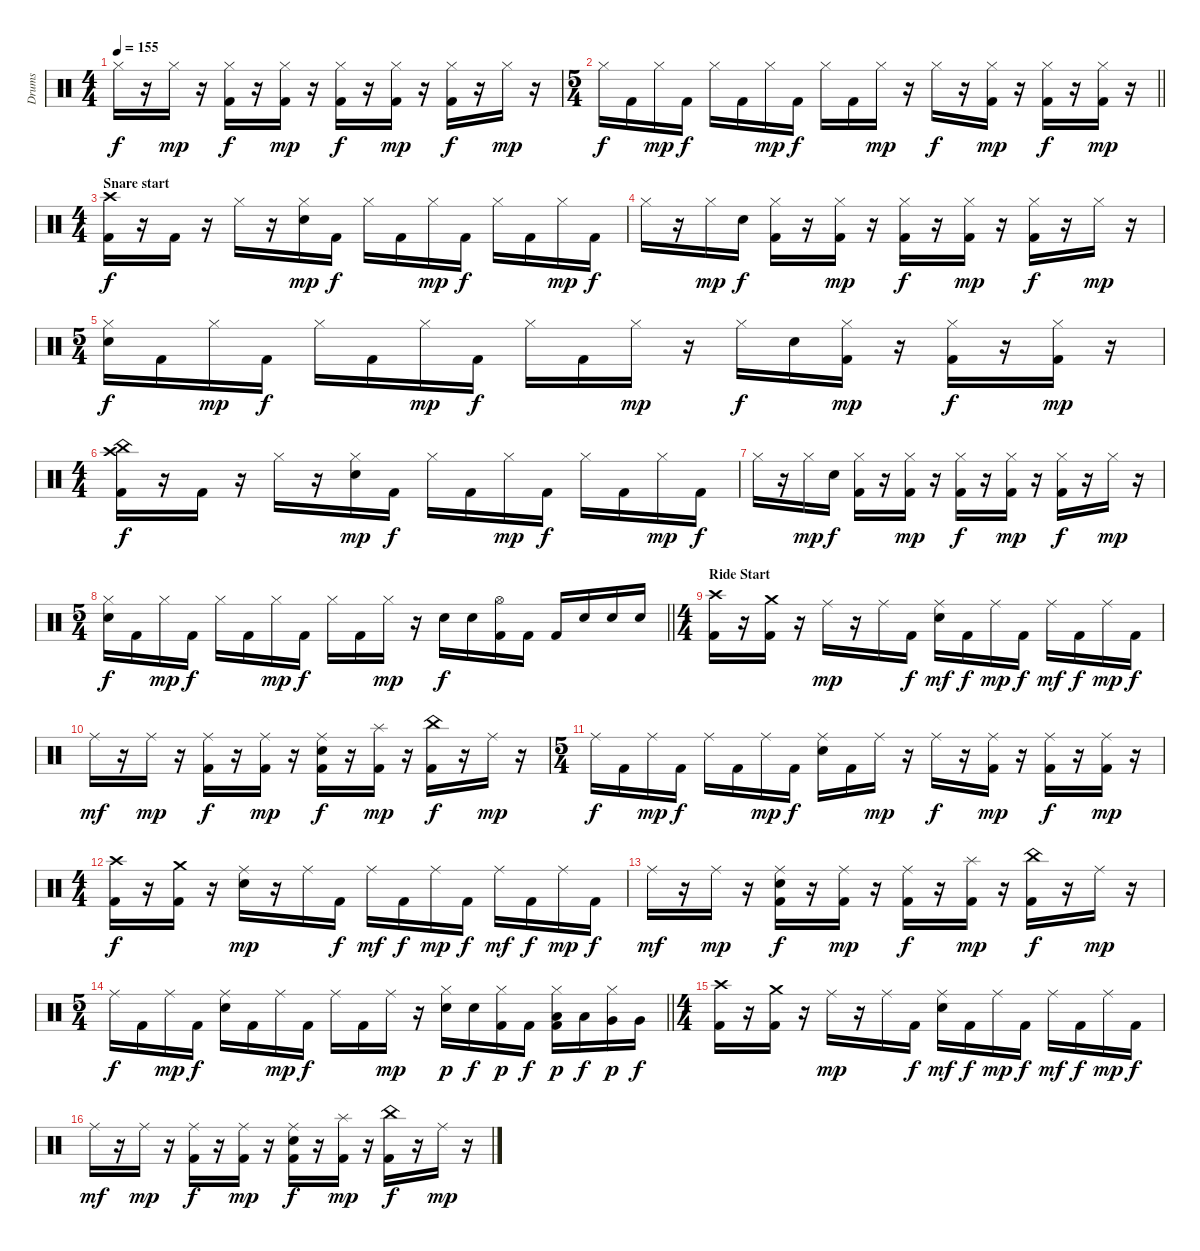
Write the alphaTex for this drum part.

\track ("Drums" "Drums") {instrument percussion}
\staff {score}
\articulation defaults
\ts (4 4)
\tempo 155
\clef neutral
\ks c "Hi-Hat (closed)".16{dy f}
r.16 "Hi-Hat (closed)".16{dy mp} r.16 ("Hi-Hat (closed)" "Kick (hit) 2").16{dy f} r.16 ("Hi-Hat (closed)" "Kick (hit) 2").16{dy mp} r.16 ("Hi-Hat (closed)" "Kick (hit) 2").16{dy f} r.16 ("Hi-Hat (closed)" "Kick (hit) 2").16{dy mp} r.16 ("Hi-Hat (closed)" "Kick (hit) 2").16{dy f} r.16 "Hi-Hat (closed)".16{dy mp} r.16 |
\ts (5 4)
\barLineRight lightlight "Hi-Hat (closed)".16{dy f} "Kick (hit) 2".16 "Hi-Hat (closed)".16{dy mp} "Kick (hit) 2".16{dy f} "Hi-Hat (closed)".16 "Kick (hit) 2".16 "Hi-Hat (closed)".16{dy mp} "Kick (hit) 2".16{dy f} "Hi-Hat (closed)".16 "Kick (hit) 2".16 "Hi-Hat (closed)".16{dy mp}
r.16 "Hi-Hat (closed)".16{dy f} r.16 ("Hi-Hat (closed)" "Kick (hit) 2").16{dy mp} r.16 ("Hi-Hat (closed)" "Kick (hit) 2").16{dy f} r.16 ("Hi-Hat (closed)" "Kick (hit) 2").16{dy mp} r.16 |
\ts (4 4)
\section ("" "Snare start")
("Crash high (hit)" "Kick (hit) 2").16{dy f} r.16 "Kick (hit) 2".16 r.16 "Hi-Hat (closed)".16 r.16 ("Hi-Hat (closed)" "Electric Snare (hit)").16{dy mp} "Kick (hit) 2".16{dy f} "Hi-Hat (closed)".16 "Kick (hit) 2".16 "Hi-Hat (closed)".16{dy mp} "Kick (hit) 2".16{dy f} "Hi-Hat (closed)".16 "Kick (hit) 2".16 "Hi-Hat (closed)".16{dy mp} "Kick (hit) 2".16{dy f} |
"Hi-Hat (closed)".16 r.16 "Hi-Hat (closed)".16{dy mp} "Electric Snare (hit)".16{dy f} ("Hi-Hat (closed)" "Kick (hit) 2").16 r.16 ("Hi-Hat (closed)" "Kick (hit) 2").16{dy mp} r.16 ("Hi-Hat (closed)" "Kick (hit) 2").16{dy f} r.16 ("Hi-Hat (closed)" "Kick (hit) 2").16{dy mp} r.16 ("Hi-Hat (closed)" "Kick (hit) 2").16{dy f} r.16 "Hi-Hat (closed)".16{dy mp} r.16 |
\ts (5 4)
("Hi-Hat (closed)" "Electric Snare (hit)").16{dy f} "Kick (hit) 2".16 "Hi-Hat (closed)".16{dy mp} "Kick (hit) 2".16{dy f} "Hi-Hat (closed)".16 "Kick (hit) 2".16 "Hi-Hat (closed)".16{dy mp} "Kick (hit) 2".16{dy f} "Hi-Hat (closed)".16 "Kick (hit) 2".16 "Hi-Hat (closed)".16{dy mp} r.16 "Hi-Hat (closed)".16{dy f} "Electric Snare (hit)".16 ("Hi-Hat (closed)" "Kick (hit) 2").16{dy mp} r.16 ("Hi-Hat (closed)" "Kick (hit) 2").16{dy f} r.16 ("Hi-Hat (closed)" "Kick (hit) 2").16{dy mp} r.16 |
\ts (4 4)
("Crash high (hit)" "China (hit)" "Kick (hit) 2").16{dy f} r.16 "Kick (hit) 2".16 r.16 "Hi-Hat (closed)".16 r.16 ("Hi-Hat (closed)" "Electric Snare (hit)").16{dy mp} "Kick (hit) 2".16{dy f} "Hi-Hat (closed)".16 "Kick (hit) 2".16 "Hi-Hat (closed)".16{dy mp} "Kick (hit) 2".16{dy f} "Hi-Hat (closed)".16 "Kick (hit) 2".16 "Hi-Hat (closed)".16{dy mp} "Kick (hit) 2".16{dy f} |
"Hi-Hat (closed)".16 r.16 "Hi-Hat (closed)".16{dy mp} "Electric Snare (hit)".16{dy f} ("Hi-Hat (closed)" "Kick (hit) 2").16 r.16 ("Hi-Hat (closed)" "Kick (hit) 2").16{dy mp} r.16 ("Hi-Hat (closed)" "Kick (hit) 2").16{dy f} r.16 ("Hi-Hat (closed)" "Kick (hit) 2").16{dy mp} r.16 ("Hi-Hat (closed)" "Kick (hit) 2").16{dy f} r.16 "Hi-Hat (closed)".16{dy mp} r.16 |
\ts (5 4)
\barLineRight lightlight
("Hi-Hat (closed)" "Electric Snare (hit)").16{dy f} "Kick (hit) 2".16 "Hi-Hat (closed)".16{dy mp} "Kick (hit) 2".16{dy f} "Hi-Hat (closed)".16 "Kick (hit) 2".16 "Hi-Hat (closed)".16{dy mp} "Kick (hit) 2".16{dy f} "Hi-Hat (closed)".16 "Kick (hit) 2".16 "Hi-Hat (closed)".16{dy mp} r.16 "Electric Snare (hit)".16{dy f} "Electric Snare (hit)".16 ("Hi-Hat (open)" "Kick (hit) 2").16 "Kick (hit) 2".16 "Kick (hit) 2".16 "Electric Snare (hit)".16 "Electric Snare (hit)".16 "Electric Snare (hit)".16 |
\ts (4 4)
\section ("" "Ride Start")
("Crash high (hit)" "Kick (hit) 2").16 r.16 ("Crash medium (hit)" "Kick (hit) 2").16 r.16 "Ride (middle)".16{dy mp} r.16 "Ride (middle)".16 "Kick (hit) 2".16{dy f} ("Ride (middle)" "Electric Snare (hit)").16{dy mf} "Kick (hit) 2".16{dy f} "Ride (middle)".16{dy mp} "Kick (hit) 2".16{dy f} "Ride (middle)".16{dy mf} "Kick (hit) 2".16{dy f} "Ride (middle)".16{dy mp} "Kick (hit) 2".16{dy f} |
"Ride (middle)".16{dy mf} r.16 "Ride (middle)".16{dy mp} r.16 ("Ride (middle)" "Kick (hit) 2").16{dy f} r.16 ("Ride (middle)" "Kick (hit) 2").16{dy mp} r.16 ("Ride (middle)" "Electric Snare (hit)" "Kick (hit) 2").16{dy f} r.16 ("Splash (hit)" "Kick (hit) 2").16{dy mp} r.16 ("China (hit)" "Kick (hit) 2").16{dy f} r.16 "Ride (middle)".16{dy mp} r.16 |
\ts (5 4)
"Ride (middle)".16{dy f} "Kick (hit) 2".16 "Ride (middle)".16{dy mp} "Kick (hit) 2".16{dy f} "Ride (middle)".16 "Kick (hit) 2".16 "Ride (middle)".16{dy mp} "Kick (hit) 2".16{dy f} ("Ride (middle)" "Electric Snare (hit)").16 "Kick (hit) 2".16 "Ride (middle)".16{dy mp} r.16 "Ride (middle)".16{dy f} r.16 ("Ride (middle)" "Kick (hit) 2").16{dy mp} r.16 ("Ride (middle)" "Kick (hit) 2").16{dy f} r.16 ("Ride (middle)" "Kick (hit) 2").16{dy mp} r.16 |
\ts (4 4)
("Crash high (hit)" "Kick (hit) 2").16{dy f} r.16 ("Crash medium (hit)" "Kick (hit) 2").16 r.16 ("Ride (middle)" "Electric Snare (hit)").16{dy mp} r.16 "Ride (middle)".16 "Kick (hit) 2".16{dy f} "Ride (middle)".16{dy mf} "Kick (hit) 2".16{dy f} "Ride (middle)".16{dy mp} "Kick (hit) 2".16{dy f} "Ride (middle)".16{dy mf} "Kick (hit) 2".16{dy f} "Ride (middle)".16{dy mp} "Kick (hit) 2".16{dy f} |
"Ride (middle)".16{dy mf} r.16 "Ride (middle)".16{dy mp} r.16 ("Ride (middle)" "Electric Snare (hit)" "Kick (hit) 2").16{dy f} r.16 ("Ride (middle)" "Kick (hit) 2").16{dy mp} r.16 ("Ride (middle)" "Kick (hit) 2").16{dy f} r.16 ("Splash (hit)" "Kick (hit) 2").16{dy mp} r.16 ("China (hit)" "Kick (hit) 2").16{dy f} r.16 "Ride (middle)".16{dy mp} r.16 |
\ts (5 4)
\barLineRight lightlight "Ride (middle)".16{dy f} "Kick (hit) 2".16 "Ride (middle)".16{dy mp} "Kick (hit) 2".16{dy f}
("Ride (middle)" "Electric Snare (hit)").16 "Kick (hit) 2".16 "Ride (middle)".16{dy mp} "Kick (hit) 2".16{dy f} "Ride (middle)".16 "Kick (hit) 2".16 "Ride (middle)".16{dy mp} r.16 ("Hi-Hat (closed)" "Electric Snare (hit)").16{dy p} "Electric Snare (hit)".16{dy f} ("Hi-Hat (closed)" "Kick (hit) 2").16{dy p} "Kick (hit) 2".16{dy f} ("Hi-Hat (closed)" "Low Tom (hit)" "Kick (hit) 2").16{dy p} "Low Tom (hit)".16{dy f} ("Hi-Hat (closed)" "Very Low Tom (hit)").16{dy p} "Very Low Tom (hit)".16{dy f} |
\ts (4 4)
("Crash high (hit)" "Kick (hit) 2").16 r.16 ("Crash medium (hit)" "Kick (hit) 2").16 r.16 "Ride (middle)".16{dy mp} r.16 "Ride (middle)".16 "Kick (hit) 2".16{dy f} ("Ride (middle)" "Electric Snare (hit)").16{dy mf} "Kick (hit) 2".16{dy f} "Ride (middle)".16{dy mp} "Kick (hit) 2".16{dy f} "Ride (middle)".16{dy mf} "Kick (hit) 2".16{dy f} "Ride (middle)".16{dy mp} "Kick (hit) 2".16{dy f} |
"Ride (middle)".16{dy mf} r.16 "Ride (middle)".16{dy mp} r.16 ("Ride (middle)" "Kick (hit) 2").16{dy f} r.16 ("Ride (middle)" "Kick (hit) 2").16{dy mp} r.16 ("Ride (middle)" "Electric Snare (hit)" "Kick (hit) 2").16{dy f} r.16 ("Splash (hit)" "Kick (hit) 2").16{dy mp} r.16 ("China (hit)" "Kick (hit) 2").16{dy f} r.16 "Ride (middle)".16{dy mp} r.16
